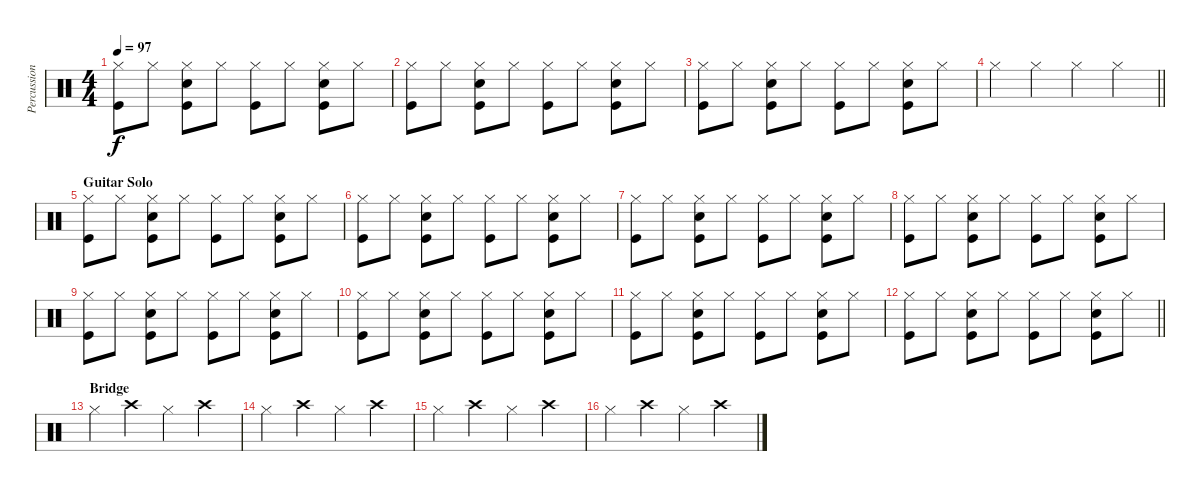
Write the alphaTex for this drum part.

\track ("Percussion" "Percussion") {instrument percussion}
\staff {score}
\articulation defaults
\ts (4 4)
\tempo 97
\clef neutral
\ks c
("Hi-Hat (closed)" "Kick (hit)").8{dy f} "Hi-Hat (closed)".8 ("Hi-Hat (closed)" "Kick (hit)" "Snare (hit) 2").8 "Hi-Hat (closed)".8 ("Hi-Hat (closed)" "Kick (hit)").8 "Hi-Hat (closed)".8 ("Hi-Hat (closed)" "Kick (hit)" "Snare (hit) 2").8 "Hi-Hat (closed)".8 |
("Hi-Hat (closed)" "Kick (hit)").8 "Hi-Hat (closed)".8 ("Hi-Hat (closed)" "Kick (hit)" "Snare (hit) 2").8 "Hi-Hat (closed)".8 ("Hi-Hat (closed)" "Kick (hit)").8 "Hi-Hat (closed)".8 ("Hi-Hat (closed)" "Kick (hit)" "Snare (hit) 2").8 "Hi-Hat (closed)".8 |
("Hi-Hat (closed)" "Kick (hit)").8 "Hi-Hat (closed)".8 ("Hi-Hat (closed)" "Kick (hit)" "Snare (hit) 2").8 "Hi-Hat (closed)".8 ("Hi-Hat (closed)" "Kick (hit)").8 "Hi-Hat (closed)".8 ("Hi-Hat (closed)" "Kick (hit)" "Snare (hit) 2").8 "Hi-Hat (closed)".8 |
\barLineRight lightlight "Hi-Hat (closed)".4 "Hi-Hat (closed)".4 "Hi-Hat (closed)".4 "Hi-Hat (closed)".4
|
\section ("" "Guitar Solo")
("Hi-Hat (closed)" "Kick (hit)").8 "Hi-Hat (closed)".8 ("Hi-Hat (closed)" "Kick (hit)" "Snare (hit) 2").8 "Hi-Hat (closed)".8 ("Hi-Hat (closed)" "Kick (hit)").8 "Hi-Hat (closed)".8 ("Hi-Hat (closed)" "Kick (hit)" "Snare (hit) 2").8 "Hi-Hat (closed)".8 |
("Hi-Hat (closed)" "Kick (hit)").8 "Hi-Hat (closed)".8 ("Hi-Hat (closed)" "Kick (hit)" "Snare (hit) 2").8 "Hi-Hat (closed)".8 ("Hi-Hat (closed)" "Kick (hit)").8 "Hi-Hat (closed)".8 ("Hi-Hat (closed)" "Kick (hit)" "Snare (hit) 2").8 "Hi-Hat (closed)".8 |
("Hi-Hat (closed)" "Kick (hit)").8 "Hi-Hat (closed)".8 ("Hi-Hat (closed)" "Kick (hit)" "Snare (hit) 2").8 "Hi-Hat (closed)".8 ("Hi-Hat (closed)" "Kick (hit)").8 "Hi-Hat (closed)".8 ("Hi-Hat (closed)" "Kick (hit)" "Snare (hit) 2").8 "Hi-Hat (closed)".8 |
("Hi-Hat (closed)" "Kick (hit)").8 "Hi-Hat (closed)".8 ("Hi-Hat (closed)" "Kick (hit)" "Snare (hit) 2").8 "Hi-Hat (closed)".8 ("Hi-Hat (closed)" "Kick (hit)").8 "Hi-Hat (closed)".8 ("Hi-Hat (closed)" "Kick (hit)" "Snare (hit) 2").8 "Hi-Hat (closed)".8 |
("Hi-Hat (closed)" "Kick (hit)").8 "Hi-Hat (closed)".8 ("Hi-Hat (closed)" "Kick (hit)" "Snare (hit) 2").8 "Hi-Hat (closed)".8 ("Hi-Hat (closed)" "Kick (hit)").8 "Hi-Hat (closed)".8 ("Hi-Hat (closed)" "Kick (hit)" "Snare (hit) 2").8 "Hi-Hat (closed)".8 |
("Hi-Hat (closed)" "Kick (hit)").8 "Hi-Hat (closed)".8 ("Hi-Hat (closed)" "Kick (hit)" "Snare (hit) 2").8 "Hi-Hat (closed)".8 ("Hi-Hat (closed)" "Kick (hit)").8 "Hi-Hat (closed)".8 ("Hi-Hat (closed)" "Kick (hit)" "Snare (hit) 2").8 "Hi-Hat (closed)".8 |
("Hi-Hat (closed)" "Kick (hit)").8 "Hi-Hat (closed)".8 ("Hi-Hat (closed)" "Kick (hit)" "Snare (hit) 2").8 "Hi-Hat (closed)".8 ("Hi-Hat (closed)" "Kick (hit)").8 "Hi-Hat (closed)".8 ("Hi-Hat (closed)" "Kick (hit)" "Snare (hit) 2").8 "Hi-Hat (closed)".8 |
\barLineRight lightlight
("Hi-Hat (closed)" "Kick (hit)").8 "Hi-Hat (closed)".8 ("Hi-Hat (closed)" "Kick (hit)" "Snare (hit) 2").8 "Hi-Hat (closed)".8 ("Hi-Hat (closed)" "Kick (hit)").8 "Hi-Hat (closed)".8 ("Hi-Hat (closed)" "Kick (hit)" "Snare (hit) 2").8 "Hi-Hat (closed)".8 |
\section ("" "Bridge")
"Hi-Hat (closed)".4 "Crash high (hit)".4 "Hi-Hat (closed)".4 "Crash high (hit)".4 |
"Hi-Hat (closed)".4 "Crash high (hit)".4 "Hi-Hat (closed)".4 "Crash high (hit)".4 |
"Hi-Hat (closed)".4 "Crash high (hit)".4 "Hi-Hat (closed)".4 "Crash high (hit)".4 |
"Hi-Hat (closed)".4 "Crash high (hit)".4 "Hi-Hat (closed)".4 "Crash high (hit)".4
